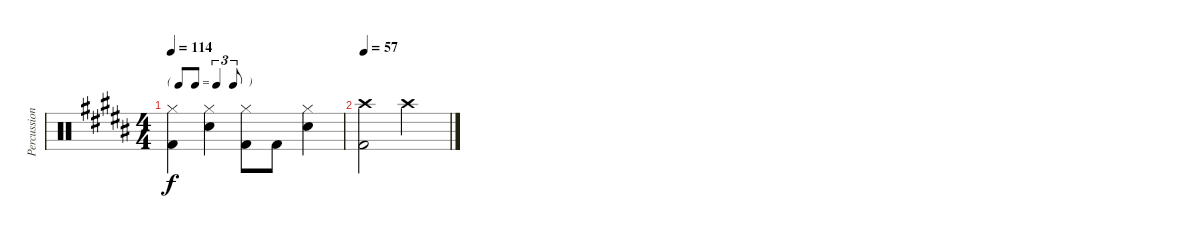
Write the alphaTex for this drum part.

\track ("Percussion" "Percussion") {instrument percussion}
\staff {score}
\articulation defaults
\ts (4 4)
\tf triplet8th
\tempo 114
\clef neutral
\ks b
("Hi-Hat (closed)" "Kick (hit) 2").4{dy f} ("Hi-Hat (closed)" "Snare (hit) 2").4 ("Hi-Hat (closed)" "Kick (hit) 2").8 "Kick (hit) 2".8 ("Hi-Hat (closed)" "Snare (hit) 2").4 |
\tempo 57
("Crash high (hit)" "Kick (hit) 2").2 "Crash high (hit)".2
